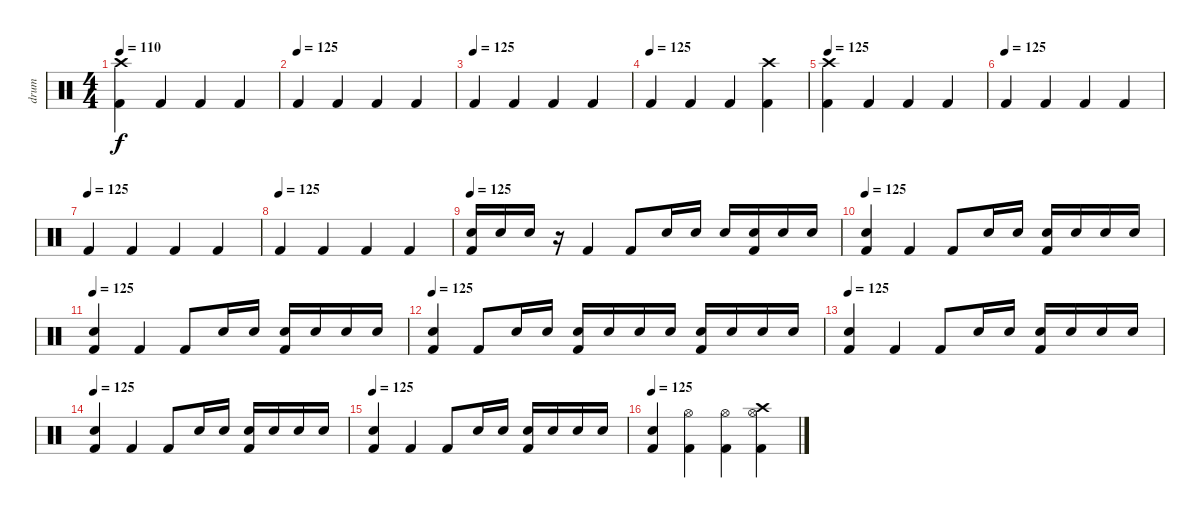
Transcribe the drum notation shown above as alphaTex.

\track ("drum" "drum") {instrument percussion}
\staff {score}
\articulation defaults
\ts (4 4)
\tempo 110
\tempo 125
\tempo 110
\clef neutral
\ks c
("Crash high (hit)" "Kick (hit) 2").4{dy f} "Kick (hit) 2".4 "Kick (hit) 2".4 "Kick (hit) 2".4 |
\tempo (125)
"Kick (hit) 2".4 "Kick (hit) 2".4 "Kick (hit) 2".4 "Kick (hit) 2".4 |
\tempo (125)
"Kick (hit) 2".4 "Kick (hit) 2".4 "Kick (hit) 2".4 "Kick (hit) 2".4 |
\tempo (125)
"Kick (hit) 2".4 "Kick (hit) 2".4 "Kick (hit) 2".4 ("Crash high (hit)" "Kick (hit) 2").4 |
\tempo 125
("Crash high (hit)" "Kick (hit) 2").4 "Kick (hit) 2".4 "Kick (hit) 2".4 "Kick (hit) 2".4 |
\tempo (125)
"Kick (hit) 2".4 "Kick (hit) 2".4 "Kick (hit) 2".4 "Kick (hit) 2".4 |
\tempo (125)
"Kick (hit) 2".4 "Kick (hit) 2".4 "Kick (hit) 2".4 "Kick (hit) 2".4 |
\tempo (125)
"Kick (hit) 2".4 "Kick (hit) 2".4 "Kick (hit) 2".4 "Kick (hit) 2".4 |
\tempo 125
("Electric Snare (hit)" "Kick (hit) 2").16 "Electric Snare (hit)".16 "Electric Snare (hit)".16 r.16 "Kick (hit) 2".4 "Kick (hit) 2".8 "Electric Snare (hit)".16 "Electric Snare (hit)".16 "Electric Snare (hit)".16 ("Electric Snare (hit)" "Kick (hit) 2").16 "Electric Snare (hit)".16 "Electric Snare (hit)".16 |
\tempo 125
("Electric Snare (hit)" "Kick (hit) 2").4 "Kick (hit) 2".4 "Kick (hit) 2".8 "Electric Snare (hit)".16 "Electric Snare (hit)".16 ("Electric Snare (hit)" "Kick (hit) 2").16 "Electric Snare (hit)".16 "Electric Snare (hit)".16 "Electric Snare (hit)".16 |
\tempo 125
("Electric Snare (hit)" "Kick (hit) 2").4 "Kick (hit) 2".4 "Kick (hit) 2".8 "Electric Snare (hit)".16 "Electric Snare (hit)".16 ("Electric Snare (hit)" "Kick (hit) 2").16 "Electric Snare (hit)".16 "Electric Snare (hit)".16 "Electric Snare (hit)".16 |
\tempo 125
("Electric Snare (hit)" "Kick (hit) 2").4 "Kick (hit) 2".8 "Electric Snare (hit)".16 "Electric Snare (hit)".16 ("Electric Snare (hit)" "Kick (hit) 2").16 "Electric Snare (hit)".16 "Electric Snare (hit)".16 "Electric Snare (hit)".16 ("Electric Snare (hit)" "Kick (hit) 2").16 "Electric Snare (hit)".16 "Electric Snare (hit)".16 "Electric Snare (hit)".16 |
\tempo 125
("Electric Snare (hit)" "Kick (hit) 2").4 "Kick (hit) 2".4 "Kick (hit) 2".8 "Electric Snare (hit)".16 "Electric Snare (hit)".16 ("Electric Snare (hit)" "Kick (hit) 2").16 "Electric Snare (hit)".16 "Electric Snare (hit)".16 "Electric Snare (hit)".16 |
\tempo 125
("Electric Snare (hit)" "Kick (hit) 2").4 "Kick (hit) 2".4 "Kick (hit) 2".8 "Electric Snare (hit)".16 "Electric Snare (hit)".16 ("Electric Snare (hit)" "Kick (hit) 2").16 "Electric Snare (hit)".16 "Electric Snare (hit)".16 "Electric Snare (hit)".16 |
\tempo 125
("Electric Snare (hit)" "Kick (hit) 2").4 "Kick (hit) 2".4 "Kick (hit) 2".8 "Electric Snare (hit)".16 "Electric Snare (hit)".16 ("Electric Snare (hit)" "Kick (hit) 2").16 "Electric Snare (hit)".16 "Electric Snare (hit)".16 "Electric Snare (hit)".16 |
\tempo 125
("Electric Snare (hit)" "Kick (hit) 2").4 ("Hi-Hat (open)" "Kick (hit) 2").4 ("Hi-Hat (open)" "Kick (hit) 2").4 ("Crash high (hit)" "Hi-Hat (open)" "Kick (hit) 2").4
